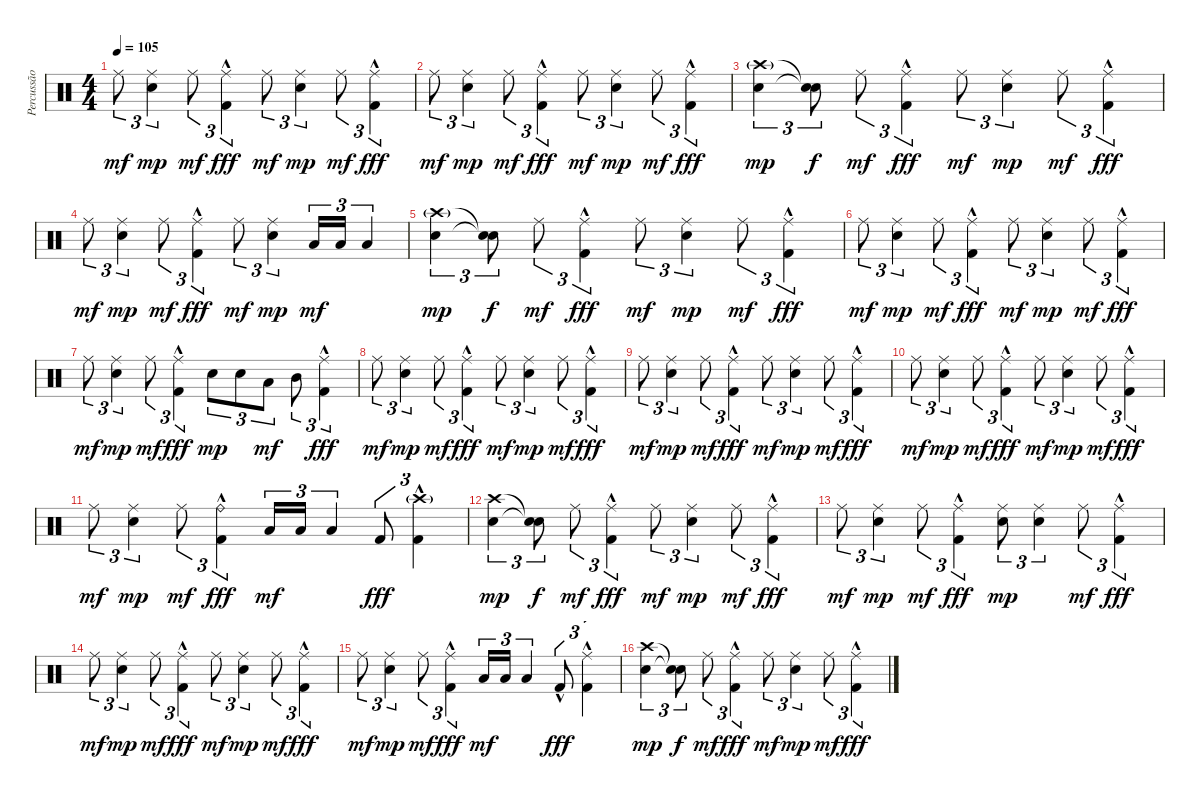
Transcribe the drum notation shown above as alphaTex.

\track ("Percussão" "Percussão") {instrument percussion}
\staff {score}
\articulation defaults
\ts (4 4)
\tempo 105
\clef neutral
\ks c "Ride (middle)".8{tu (3 2) dy mf}
("Ride (middle)" "Electric Snare (hit)").4{tu (3 2) dy mp} "Ride (middle)".8{tu (3 2) dy mf} ("Ride (middle)" "Kick (hit) 2"{hac}).4{tu (3 2) dy fff} "Ride (middle)".8{tu (3 2) dy mf} ("Ride (middle)" "Electric Snare (hit)").4{tu (3 2) dy mp} "Ride (middle)".8{tu (3 2) dy mf} ("Ride (middle)" "Kick (hit) 2"{hac}).4{tu (3 2) dy fff} |
"Ride (middle)".8{tu (3 2) dy mf} ("Ride (middle)" "Electric Snare (hit)").4{tu (3 2) dy mp} "Ride (middle)".8{tu (3 2) dy mf} ("Ride (middle)" "Kick (hit) 2"{hac}).4{tu (3 2) dy fff} "Ride (middle)".8{tu (3 2) dy mf} ("Ride (middle)" "Electric Snare (hit)").4{tu (3 2) dy mp} "Ride (middle)".8{tu (3 2) dy mf} ("Ride (middle)" "Kick (hit) 2"{hac}).4{tu (3 2) dy fff} |
("Crash high (hit)"{g} "Electric Snare (hit)").4{tu (3 2) dy mp} ("Snare (hit)"{t} "Snare (hit)"{t}).8{tu (3 2) dy f} "Ride (middle)".8{tu (3 2) dy mf} ("Ride (middle)" "Kick (hit) 2"{hac}).4{tu (3 2) dy fff} "Ride (middle)".8{tu (3 2) dy mf} ("Ride (middle)" "Electric Snare (hit)").4{tu (3 2) dy mp} "Ride (middle)".8{tu (3 2) dy mf} ("Ride (middle)" "Kick (hit) 2"{hac}).4{tu (3 2) dy fff} |
"Ride (middle)".8{tu (3 2) dy mf} ("Ride (middle)" "Electric Snare (hit)").4{tu (3 2) dy mp} "Ride (middle)".8{tu (3 2) dy mf} ("Ride (middle)" "Kick (hit) 2"{hac}).4{tu (3 2) dy fff} "Ride (middle)".8{tu (3 2) dy mf} ("Ride (middle)" "Electric Snare (hit)").4{tu (3 2) dy mp} "Low Floor Tom (hit)".16{tu (3 2) dy mf} "Low Floor Tom (hit)".16{tu (3 2)} "Low Floor Tom (hit)".4{tu (3 2)} |
("Crash high (hit)"{g} "Electric Snare (hit)").4{tu (3 2) dy mp} ("Snare (hit)"{t} "Snare (hit)"{t}).8{tu (3 2) dy f} "Ride (middle)".8{tu (3 2) dy mf} ("Ride (middle)" "Kick (hit) 2"{hac}).4{tu (3 2) dy fff} "Ride (middle)".8{tu (3 2) dy mf} ("Ride (middle)" "Electric Snare (hit)").4{tu (3 2) dy mp} "Ride (middle)".8{tu (3 2) dy mf} ("Ride (middle)" "Kick (hit) 2"{hac}).4{tu (3 2) dy fff} |
"Ride (middle)".8{tu (3 2) dy mf} ("Ride (middle)" "Electric Snare (hit)").4{tu (3 2) dy mp} "Ride (middle)".8{tu (3 2) dy mf} ("Ride (middle)" "Kick (hit) 2"{hac}).4{tu (3 2) dy fff} "Ride (middle)".8{tu (3 2) dy mf} ("Ride (middle)" "Electric Snare (hit)").4{tu (3 2) dy mp} "Ride (middle)".8{tu (3 2) dy mf} ("Ride (middle)" "Kick (hit) 2"{hac}).4{tu (3 2) dy fff} |
"Ride (middle)".8{tu (3 2) dy mf} ("Ride (middle)" "Electric Snare (hit)").4{tu (3 2) dy mp} "Ride (middle)".8{tu (3 2) dy mf} ("Ride (middle)" "Kick (hit) 2"{hac}).4{tu (3 2) dy fff} "Electric Snare (hit)".8{tu (3 2) dy mp} "Electric Snare (hit)".8{tu (3 2)} "Low Tom (hit)".8{tu (3 2) dy mf} "Mid Tom (hit)".8{tu (3 2)} ("Ride (middle)" "Kick (hit) 2"{hac}).4{tu (3 2) dy fff} |
"Ride (middle)".8{tu (3 2) dy mf} ("Ride (middle)" "Electric Snare (hit)").4{tu (3 2) dy mp} "Ride (middle)".8{tu (3 2) dy mf} ("Ride (middle)" "Kick (hit) 2"{hac}).4{tu (3 2) dy fff} "Ride (middle)".8{tu (3 2) dy mf} ("Ride (middle)" "Electric Snare (hit)").4{tu (3 2) dy mp} "Ride (middle)".8{tu (3 2) dy mf} ("Ride (middle)" "Kick (hit) 2"{hac}).4{tu (3 2) dy fff} |
"Ride (middle)".8{tu (3 2) dy mf} ("Ride (middle)" "Electric Snare (hit)").4{tu (3 2) dy mp} "Ride (middle)".8{tu (3 2) dy mf} ("Ride (middle)" "Kick (hit) 2"{hac}).4{tu (3 2) dy fff} "Ride (middle)".8{tu (3 2) dy mf} ("Ride (middle)" "Electric Snare (hit)").4{tu (3 2) dy mp} "Ride (middle)".8{tu (3 2) dy mf} ("Ride (middle)" "Kick (hit) 2"{hac}).4{tu (3 2) dy fff} |
"Ride (middle)".8{tu (3 2) dy mf} ("Ride (middle)" "Electric Snare (hit)").4{tu (3 2) dy mp} "Ride (middle)".8{tu (3 2) dy mf} ("Ride (middle)" "Kick (hit) 2"{hac}).4{tu (3 2) dy fff} "Ride (middle)".8{tu (3 2) dy mf} ("Ride (middle)" "Electric Snare (hit)").4{tu (3 2) dy mp} "Ride (middle)".8{tu (3 2) dy mf} ("Ride (middle)" "Kick (hit) 2"{hac}).4{tu (3 2) dy fff} |
"Ride (middle)".8{tu (3 2) dy mf} ("Ride (middle)" "Electric Snare (hit)").4{tu (3 2) dy mp} "Ride (middle)".8{tu (3 2) dy mf} ("Ride (bell)" "Kick (hit) 2"{hac}).4{tu (3 2) dy fff} "Low Floor Tom (hit)".16{tu (3 2) dy mf} "Low Floor Tom (hit)".16{tu (3 2)} "Low Floor Tom (hit)".4{tu (3 2)} "Kick (hit) 2".8{tu (3 2) dy fff} ("Crash high (hit)"{g} "Kick (hit) 2"{hac}).4{tu (3 2)} |
("Crash high (hit)" "Electric Snare (hit)").4{tu (3 2) dy mp} ("Snare (hit)"{t} "Snare (hit)"{t}).8{tu (3 2) dy f} "Ride (middle)".8{tu (3 2) dy mf} ("Ride (middle)" "Kick (hit) 2"{hac}).4{tu (3 2) dy fff} "Ride (middle)".8{tu (3 2) dy mf} ("Ride (middle)" "Electric Snare (hit)").4{tu (3 2) dy mp} "Ride (middle)".8{tu (3 2) dy mf} ("Ride (middle)" "Kick (hit) 2"{hac}).4{tu (3 2) dy fff} |
"Ride (middle)".8{tu (3 2) dy mf} ("Ride (middle)" "Electric Snare (hit)").4{tu (3 2) dy mp} "Ride (middle)".8{tu (3 2) dy mf} ("Ride (middle)" "Kick (hit) 2"{hac}).4{tu (3 2) dy fff} ("Ride (middle)" "Electric Snare (hit)").8{tu (3 2) dy mp} ("Ride (middle)" "Electric Snare (hit)").4{tu (3 2)} "Ride (middle)".8{tu (3 2) dy mf} ("Ride (middle)" "Kick (hit) 2"{hac}).4{tu (3 2) dy fff} |
"Ride (middle)".8{tu (3 2) dy mf} ("Ride (middle)" "Electric Snare (hit)").4{tu (3 2) dy mp} "Ride (middle)".8{tu (3 2) dy mf} ("Ride (middle)" "Kick (hit) 2"{hac}).4{tu (3 2) dy fff} "Ride (middle)".8{tu (3 2) dy mf} ("Ride (middle)" "Electric Snare (hit)").4{tu (3 2) dy mp} "Ride (middle)".8{tu (3 2) dy mf} ("Ride (middle)" "Kick (hit) 2"{hac}).4{tu (3 2) dy fff} |
"Ride (middle)".8{tu (3 2) dy mf} ("Ride (middle)" "Electric Snare (hit)").4{tu (3 2) dy mp} "Ride (middle)".8{tu (3 2) dy mf} ("Ride (middle)" "Kick (hit) 2"{hac}).4{tu (3 2) dy fff} "Low Floor Tom (hit)".16{tu (3 2) dy mf} "Low Floor Tom (hit)".16{tu (3 2)} "Low Floor Tom (hit)".4{tu (3 2)} "Kick (hit) 2"{hac}.8{tu (3 2) dy fff} ("Ride (middle)" "Kick (hit) 2"{hac}).4{tu (3 2)} |
("Crash high (hit)" "Electric Snare (hit)").4{tu (3 2) dy mp} ("Snare (hit)"{t} "Snare (hit)"{t}).8{tu (3 2) dy f} "Ride (middle)".8{tu (3 2) dy mf} ("Ride (middle)" "Kick (hit) 2"{hac}).4{tu (3 2) dy fff} "Ride (middle)".8{tu (3 2) dy mf} ("Ride (middle)" "Electric Snare (hit)").4{tu (3 2) dy mp} "Ride (middle)".8{tu (3 2) dy mf} ("Ride (middle)" "Kick (hit) 2"{hac}).4{tu (3 2) dy fff}
